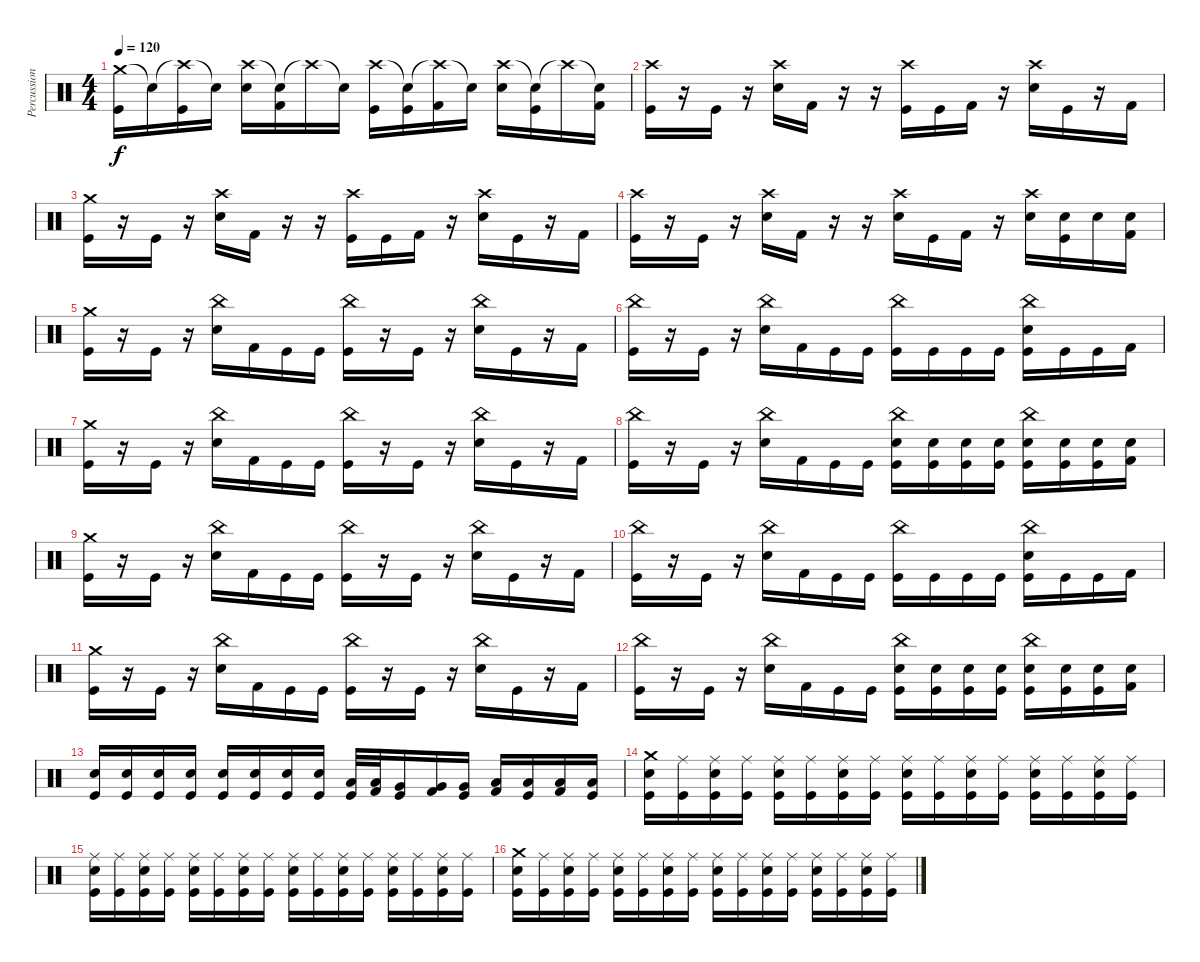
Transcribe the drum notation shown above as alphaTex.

\track ("Percussions" "Percussion") {instrument percussion}
\staff {score}
\articulation defaults
\ts (4 4)
\tempo 120
\clef neutral
\ks c
("Crash medium (hit)" "Kick (hit)").16{dy f} "Snare (hit)"{t}.16 ("Crash high (hit)"{t} "Kick (hit)").16 "Snare (hit)"{t}.16 ("Crash high (hit)" "Electric Snare (hit)").16 ("Snare (hit)"{t} "Kick (hit) 2").16 "Crash high (hit)"{t}.16 "Snare (hit)"{t}.16 ("Crash high (hit)" "Kick (hit)").16 ("Snare (hit)"{t} "Kick (hit)").16 ("Crash high (hit)"{t} "Kick (hit) 2").16 "Snare (hit)"{t}.16 ("Crash high (hit)" "Electric Snare (hit)").16 ("Snare (hit)"{t} "Kick (hit)").16 "Crash high (hit)"{t}.16 ("Snare (hit)"{t} "Kick (hit) 2").16 |
("Crash high (hit)" "Kick (hit)").16 r.16 "Kick (hit)".16 r.16 ("Crash high (hit)" "Electric Snare (hit)").16 "Kick (hit) 2".16 r.16 r.16 ("Crash high (hit)" "Kick (hit)").16 "Kick (hit)".16 "Kick (hit) 2".16 r.16 ("Crash high (hit)" "Electric Snare (hit)").16 "Kick (hit)".16 r.16 "Kick (hit) 2".16 |
("Crash medium (hit)" "Kick (hit)").16 r.16 "Kick (hit)".16 r.16 ("Crash high (hit)" "Electric Snare (hit)").16 "Kick (hit) 2".16 r.16 r.16 ("Crash high (hit)" "Kick (hit)").16 "Kick (hit)".16 "Kick (hit) 2".16 r.16 ("Crash high (hit)" "Electric Snare (hit)").16 "Kick (hit)".16 r.16 "Kick (hit) 2".16 |
("Crash high (hit)" "Kick (hit)").16 r.16 "Kick (hit)".16 r.16 ("Crash high (hit)" "Electric Snare (hit)").16 "Kick (hit) 2".16 r.16 r.16 ("Crash high (hit)" "Electric Snare (hit)").16 "Kick (hit)".16 "Kick (hit) 2".16 r.16 ("Crash high (hit)" "Electric Snare (hit)").16 ("Electric Snare (hit)" "Kick (hit)").16 "Electric Snare (hit)".16 ("Electric Snare (hit)" "Kick (hit) 2").16 |
("Crash medium (hit)" "Kick (hit)").16 r.16 "Kick (hit)".16 r.16 ("China (hit)" "Electric Snare (hit)").16 "Kick (hit) 2".16 "Kick (hit)".16 "Kick (hit)".16 ("China (hit)" "Kick (hit)").16 r.16 "Kick (hit)".16 r.16 ("China (hit)" "Electric Snare (hit)").16 "Kick (hit)".16 r.16 "Kick (hit) 2".16 |
("China (hit)" "Kick (hit)").16 r.16 "Kick (hit)".16 r.16 ("China (hit)" "Electric Snare (hit)").16 "Kick (hit) 2".16 "Kick (hit)".16 "Kick (hit)".16 ("China (hit)" "Kick (hit)").16 "Kick (hit)".16 "Kick (hit)".16 "Kick (hit)".16 ("China (hit)" "Electric Snare (hit)" "Kick (hit)").16 "Kick (hit)".16 "Kick (hit)".16 "Kick (hit) 2".16 |
("Crash medium (hit)" "Kick (hit)").16 r.16 "Kick (hit)".16 r.16 ("China (hit)" "Electric Snare (hit)").16 "Kick (hit) 2".16 "Kick (hit)".16 "Kick (hit)".16 ("China (hit)" "Kick (hit)").16 r.16 "Kick (hit)".16 r.16 ("China (hit)" "Electric Snare (hit)").16 "Kick (hit)".16 r.16 "Kick (hit) 2".16 |
("China (hit)" "Kick (hit)").16 r.16 "Kick (hit)".16 r.16 ("China (hit)" "Electric Snare (hit)").16 "Kick (hit) 2".16 "Kick (hit)".16 "Kick (hit)".16 ("China (hit)" "Electric Snare (hit)" "Kick (hit)").16 ("Electric Snare (hit)" "Kick (hit)").16 ("Electric Snare (hit)" "Kick (hit)").16 ("Electric Snare (hit)" "Kick (hit)").16 ("China (hit)" "Electric Snare (hit)" "Kick (hit)").16 ("Electric Snare (hit)" "Kick (hit)").16 ("Electric Snare (hit)" "Kick (hit)").16 ("Electric Snare (hit)" "Kick (hit) 2").16 |
("Crash medium (hit)" "Kick (hit)").16 r.16 "Kick (hit)".16 r.16 ("China (hit)" "Electric Snare (hit)").16 "Kick (hit) 2".16 "Kick (hit)".16 "Kick (hit)".16 ("China (hit)" "Kick (hit)").16 r.16 "Kick (hit)".16 r.16 ("China (hit)" "Electric Snare (hit)").16 "Kick (hit)".16 r.16 "Kick (hit) 2".16 |
("China (hit)" "Kick (hit)").16 r.16 "Kick (hit)".16 r.16 ("China (hit)" "Electric Snare (hit)").16 "Kick (hit) 2".16 "Kick (hit)".16 "Kick (hit)".16 ("China (hit)" "Kick (hit)").16 "Kick (hit)".16 "Kick (hit)".16 "Kick (hit)".16 ("China (hit)" "Electric Snare (hit)" "Kick (hit)").16 "Kick (hit)".16 "Kick (hit)".16 "Kick (hit) 2".16 |
("Crash medium (hit)" "Kick (hit)").16 r.16 "Kick (hit)".16 r.16 ("China (hit)" "Electric Snare (hit)").16 "Kick (hit) 2".16 "Kick (hit)".16 "Kick (hit)".16 ("China (hit)" "Kick (hit)").16 r.16 "Kick (hit)".16 r.16 ("China (hit)" "Electric Snare (hit)").16 "Kick (hit)".16 r.16 "Kick (hit) 2".16 |
("China (hit)" "Kick (hit)").16 r.16 "Kick (hit)".16 r.16 ("China (hit)" "Electric Snare (hit)").16 "Kick (hit) 2".16 "Kick (hit)".16 "Kick (hit)".16 ("China (hit)" "Electric Snare (hit)" "Kick (hit)").16 ("Electric Snare (hit)" "Kick (hit)").16 ("Electric Snare (hit)" "Kick (hit)").16 ("Electric Snare (hit)" "Kick (hit)").16 ("China (hit)" "Electric Snare (hit)" "Kick (hit)").16 ("Electric Snare (hit)" "Kick (hit)").16 ("Electric Snare (hit)" "Kick (hit)").16 ("Electric Snare (hit)" "Kick (hit) 2").16 |
("Electric Snare (hit)" "Kick (hit)").16 ("Electric Snare (hit)" "Kick (hit)").16 ("Electric Snare (hit)" "Kick (hit)").16 ("Electric Snare (hit)" "Kick (hit)").16 ("Electric Snare (hit)" "Kick (hit)").16 ("Electric Snare (hit)" "Kick (hit)").16 ("Electric Snare (hit)" "Kick (hit)").16 ("Electric Snare (hit)" "Kick (hit)").16 ("Kick (hit)" "Low Tom (hit)").32 ("Kick (hit) 2" "Low Tom (hit)").32 ("Kick (hit)" "Very Low Tom (hit)").16 ("Kick (hit) 2" "Very Low Tom (hit)").16 ("Kick (hit)" "Very Low Tom (hit)").16 ("Kick (hit) 2" "Low Floor Tom (hit)").16 ("Kick (hit)" "Low Floor Tom (hit)").16 ("Kick (hit) 2" "Low Floor Tom (hit)").16 ("Kick (hit)" "Low Floor Tom (hit)").16 |
("Crash medium (hit)" "Electric Snare (hit)" "Kick (hit)").16 ("Ride (middle)" "Kick (hit)").16 ("Ride (middle)" "Electric Snare (hit)" "Kick (hit)").16 ("Ride (middle)" "Kick (hit)").16 ("Ride (middle)" "Electric Snare (hit)" "Kick (hit)").16 ("Ride (middle)" "Kick (hit)").16 ("Ride (middle)" "Electric Snare (hit)" "Kick (hit)").16 ("Ride (middle)" "Kick (hit)").16 ("Ride (middle)" "Electric Snare (hit)" "Kick (hit)").16 ("Ride (middle)" "Kick (hit)").16 ("Ride (middle)" "Electric Snare (hit)" "Kick (hit)").16 ("Ride (middle)" "Kick (hit)").16 ("Ride (middle)" "Electric Snare (hit)" "Kick (hit)").16 ("Ride (middle)" "Kick (hit)").16 ("Ride (middle)" "Electric Snare (hit)" "Kick (hit)").16 ("Ride (middle)" "Kick (hit)").16 |
("Ride (middle)" "Electric Snare (hit)" "Kick (hit)").16 ("Ride (middle)" "Kick (hit)").16 ("Ride (middle)" "Electric Snare (hit)" "Kick (hit)").16 ("Ride (middle)" "Kick (hit)").16 ("Ride (middle)" "Electric Snare (hit)" "Kick (hit)").16 ("Ride (middle)" "Kick (hit)").16 ("Ride (middle)" "Electric Snare (hit)" "Kick (hit)").16 ("Ride (middle)" "Kick (hit)").16 ("Ride (middle)" "Electric Snare (hit)" "Kick (hit)").16 ("Ride (middle)" "Kick (hit)").16 ("Ride (middle)" "Electric Snare (hit)" "Kick (hit)").16 ("Ride (middle)" "Kick (hit)").16 ("Ride (middle)" "Electric Snare (hit)" "Kick (hit)").16 ("Ride (middle)" "Kick (hit)").16 ("Ride (middle)" "Electric Snare (hit)" "Kick (hit)").16 ("Ride (middle)" "Kick (hit)").16 |
("Crash medium (hit)" "Electric Snare (hit)" "Kick (hit)").16 ("Ride (middle)" "Kick (hit)").16 ("Ride (middle)" "Electric Snare (hit)" "Kick (hit)").16 ("Ride (middle)" "Kick (hit)").16 ("Ride (middle)" "Electric Snare (hit)" "Kick (hit)").16 ("Ride (middle)" "Kick (hit)").16 ("Ride (middle)" "Electric Snare (hit)" "Kick (hit)").16 ("Ride (middle)" "Kick (hit)").16 ("Ride (middle)" "Electric Snare (hit)" "Kick (hit)").16 ("Ride (middle)" "Kick (hit)").16 ("Ride (middle)" "Electric Snare (hit)" "Kick (hit)").16 ("Ride (middle)" "Kick (hit)").16 ("Ride (middle)" "Electric Snare (hit)" "Kick (hit)").16 ("Ride (middle)" "Kick (hit)").16 ("Ride (middle)" "Electric Snare (hit)" "Kick (hit)").16 ("Ride (middle)" "Kick (hit)").16
